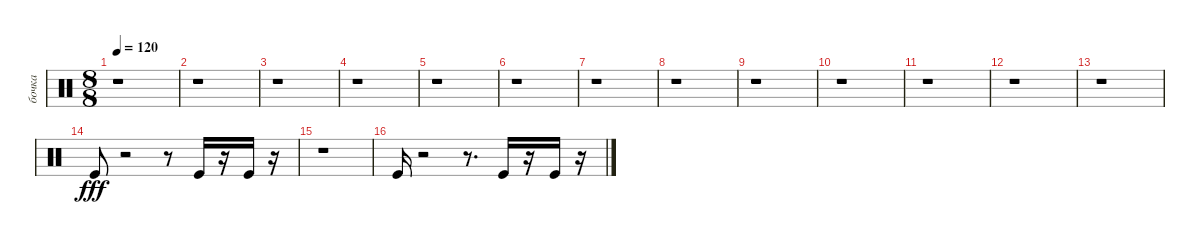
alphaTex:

\track ("бочка" "бочка") {instrument percussion}
\staff {score}
\articulation defaults
\ts (8 8)
\tempo 120
\clef neutral
\ks c
r.1{dy fff} |
r.1 |
r.1 |
r.1 |
r.1 |
r.1 |
r.1 |
r.1 |
r.1 |
r.1 |
r.1 |
r.1 |
r.1 |
"Kick (hit)".8 r.2 r.8 "Kick (hit)".16 r.16 "Kick (hit)".16 r.16 |
r.1 |
"Kick (hit)".16 r.2 r.8{d} "Kick (hit)".16 r.16 "Kick (hit)".16 r.16
